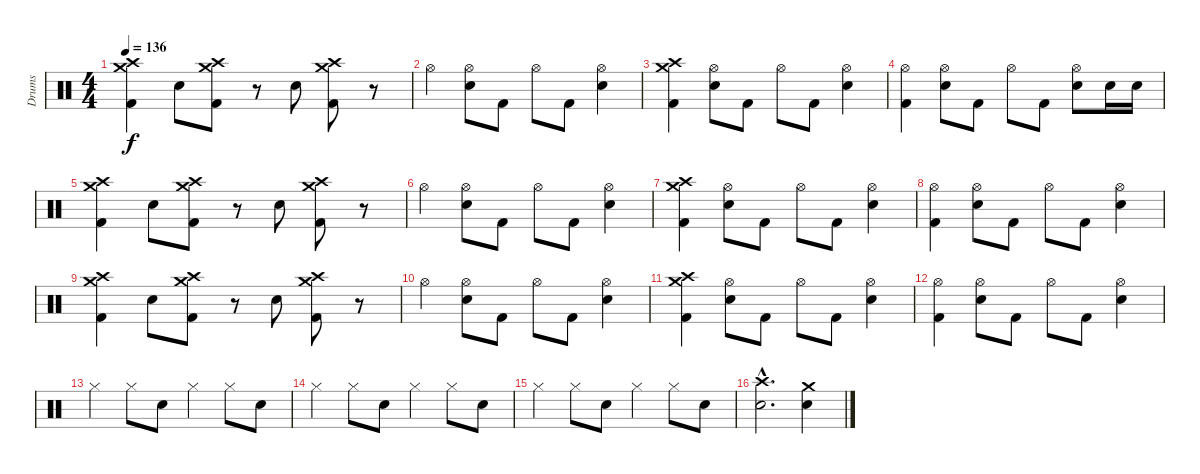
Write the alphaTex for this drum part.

\track ("Drums" "Drums") {instrument percussion}
\staff {score}
\articulation defaults
\ts (4 4)
\tempo 136
\clef neutral
\ks c
("Crash high (hit)" "Crash medium (hit)" "Kick (hit) 2").4{dy f} "Electric Snare (hit)".8 ("Crash high (hit)" "Crash medium (hit)" "Kick (hit) 2").8 r.8 "Electric Snare (hit)".8 ("Crash high (hit)" "Crash medium (hit)" "Kick (hit) 2").8 r.8 |
"Hi-Hat (open)".4 ("Hi-Hat (open)" "Electric Snare (hit)").8 "Kick (hit) 2".8 "Hi-Hat (open)".8 "Kick (hit) 2".8 ("Hi-Hat (open)" "Electric Snare (hit)").4 |
("Crash high (hit)" "Crash medium (hit)" "Kick (hit) 2").4 ("Hi-Hat (open)" "Electric Snare (hit)").8 "Kick (hit) 2".8 "Hi-Hat (open)".8 "Kick (hit) 2".8 ("Hi-Hat (open)" "Electric Snare (hit)").4 |
("Hi-Hat (open)" "Kick (hit) 2").4 ("Hi-Hat (open)" "Electric Snare (hit)").8 "Kick (hit) 2".8 "Hi-Hat (open)".8 "Kick (hit) 2".8 ("Hi-Hat (open)" "Electric Snare (hit)").8 "Electric Snare (hit)".16 "Electric Snare (hit)".16 |
("Crash high (hit)" "Crash medium (hit)" "Kick (hit) 2").4 "Electric Snare (hit)".8 ("Crash high (hit)" "Crash medium (hit)" "Kick (hit) 2").8 r.8 "Electric Snare (hit)".8 ("Crash high (hit)" "Crash medium (hit)" "Kick (hit) 2").8 r.8 |
"Hi-Hat (open)".4 ("Hi-Hat (open)" "Electric Snare (hit)").8 "Kick (hit) 2".8 "Hi-Hat (open)".8 "Kick (hit) 2".8 ("Hi-Hat (open)" "Electric Snare (hit)").4 |
("Crash high (hit)" "Crash medium (hit)" "Kick (hit) 2").4 ("Hi-Hat (open)" "Electric Snare (hit)").8 "Kick (hit) 2".8 "Hi-Hat (open)".8 "Kick (hit) 2".8 ("Hi-Hat (open)" "Electric Snare (hit)").4 |
("Hi-Hat (open)" "Kick (hit) 2").4 ("Hi-Hat (open)" "Electric Snare (hit)").8 "Kick (hit) 2".8 "Hi-Hat (open)".8 "Kick (hit) 2".8 ("Hi-Hat (open)" "Electric Snare (hit)").4 |
("Crash high (hit)" "Crash medium (hit)" "Kick (hit) 2").4 "Electric Snare (hit)".8 ("Crash high (hit)" "Crash medium (hit)" "Kick (hit) 2").8 r.8 "Electric Snare (hit)".8 ("Crash high (hit)" "Crash medium (hit)" "Kick (hit) 2").8 r.8 |
"Hi-Hat (open)".4 ("Hi-Hat (open)" "Electric Snare (hit)").8 "Kick (hit) 2".8 "Hi-Hat (open)".8 "Kick (hit) 2".8 ("Hi-Hat (open)" "Electric Snare (hit)").4 |
("Crash high (hit)" "Crash medium (hit)" "Kick (hit) 2").4 ("Hi-Hat (open)" "Electric Snare (hit)").8 "Kick (hit) 2".8 "Hi-Hat (open)".8 "Kick (hit) 2".8 ("Hi-Hat (open)" "Electric Snare (hit)").4 |
("Hi-Hat (open)" "Kick (hit) 2").4 ("Hi-Hat (open)" "Electric Snare (hit)").8 "Kick (hit) 2".8 "Hi-Hat (open)".8 "Kick (hit) 2".8 ("Hi-Hat (open)" "Electric Snare (hit)").4 |
"Hi-Hat (closed)".4 "Hi-Hat (closed)".8 "Electric Snare (hit)".8 "Hi-Hat (closed)".4 "Hi-Hat (closed)".8 "Electric Snare (hit)".8 |
"Hi-Hat (closed)".4 "Hi-Hat (closed)".8 "Electric Snare (hit)".8 "Hi-Hat (closed)".4 "Hi-Hat (closed)".8 "Electric Snare (hit)".8 |
"Hi-Hat (closed)".4 "Hi-Hat (closed)".8 "Electric Snare (hit)".8 "Hi-Hat (closed)".4 "Hi-Hat (closed)".8 "Electric Snare (hit)".8 |
("Crash high (hit)"{hac} "Electric Snare (hit)"{hac}).2{d} ("Crash medium (hit)" "Electric Snare (hit)").4
